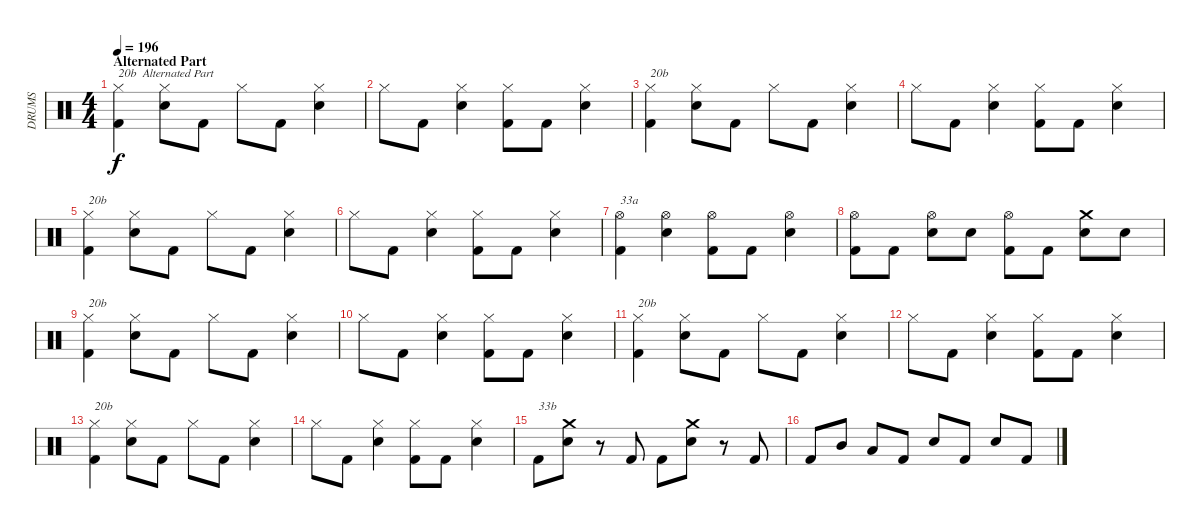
\track ("DRUMS" "DRUMS") {instrument percussion}
\staff {score}
\articulation defaults
\ts (4 4)
\section ("" "Alternated Part")
\tempo 196
\clef neutral
\ks c
("Hi-Hat (closed)" "Kick (hit) 2").4{txt "20b  Alternated Part" dy f} ("Hi-Hat (closed)" "Snare (hit) 2").8 "Kick (hit) 2".8 "Hi-Hat (closed)".8 "Kick (hit) 2".8 ("Hi-Hat (closed)" "Snare (hit) 2").4 |
"Hi-Hat (closed)".8 "Kick (hit) 2".8 ("Hi-Hat (closed)" "Snare (hit) 2").4 ("Hi-Hat (closed)" "Kick (hit) 2").8 "Kick (hit) 2".8 ("Hi-Hat (closed)" "Snare (hit) 2").4 |
("Hi-Hat (closed)" "Kick (hit) 2").4{txt "20b"} ("Hi-Hat (closed)" "Snare (hit) 2").8 "Kick (hit) 2".8 "Hi-Hat (closed)".8 "Kick (hit) 2".8 ("Hi-Hat (closed)" "Snare (hit) 2").4 |
"Hi-Hat (closed)".8 "Kick (hit) 2".8 ("Hi-Hat (closed)" "Snare (hit) 2").4 ("Hi-Hat (closed)" "Kick (hit) 2").8 "Kick (hit) 2".8 ("Hi-Hat (closed)" "Snare (hit) 2").4 |
("Hi-Hat (closed)" "Kick (hit) 2").4{txt "20b"} ("Hi-Hat (closed)" "Snare (hit) 2").8 "Kick (hit) 2".8 "Hi-Hat (closed)".8 "Kick (hit) 2".8 ("Hi-Hat (closed)" "Snare (hit) 2").4 |
"Hi-Hat (closed)".8 "Kick (hit) 2".8 ("Hi-Hat (closed)" "Snare (hit) 2").4 ("Hi-Hat (closed)" "Kick (hit) 2").8 "Kick (hit) 2".8 ("Hi-Hat (closed)" "Snare (hit) 2").4 |
("Hi-Hat (open)" "Kick (hit) 2").4{txt "33a"} ("Hi-Hat (open)" "Snare (hit) 2").4 ("Hi-Hat (open)" "Kick (hit) 2").8 "Kick (hit) 2".8 ("Hi-Hat (open)" "Snare (hit) 2").4 |
("Hi-Hat (open)" "Kick (hit) 2").8 "Kick (hit) 2".8 ("Hi-Hat (open)" "Snare (hit) 2").8 "Snare (hit) 2".8 ("Hi-Hat (open)" "Kick (hit) 2").8 "Kick (hit) 2".8 ("Crash medium (hit)" "Snare (hit) 2").8 "Snare (hit) 2".8 |
("Hi-Hat (closed)" "Kick (hit) 2").4{txt "20b"} ("Hi-Hat (closed)" "Snare (hit) 2").8 "Kick (hit) 2".8 "Hi-Hat (closed)".8 "Kick (hit) 2".8 ("Hi-Hat (closed)" "Snare (hit) 2").4 |
"Hi-Hat (closed)".8 "Kick (hit) 2".8 ("Hi-Hat (closed)" "Snare (hit) 2").4 ("Hi-Hat (closed)" "Kick (hit) 2").8 "Kick (hit) 2".8 ("Hi-Hat (closed)" "Snare (hit) 2").4 |
("Hi-Hat (closed)" "Kick (hit) 2").4{txt "20b"} ("Hi-Hat (closed)" "Snare (hit) 2").8 "Kick (hit) 2".8 "Hi-Hat (closed)".8 "Kick (hit) 2".8 ("Hi-Hat (closed)" "Snare (hit) 2").4 |
"Hi-Hat (closed)".8 "Kick (hit) 2".8 ("Hi-Hat (closed)" "Snare (hit) 2").4 ("Hi-Hat (closed)" "Kick (hit) 2").8 "Kick (hit) 2".8 ("Hi-Hat (closed)" "Snare (hit) 2").4 |
("Hi-Hat (closed)" "Kick (hit) 2").4{txt "20b"} ("Hi-Hat (closed)" "Snare (hit) 2").8 "Kick (hit) 2".8 "Hi-Hat (closed)".8 "Kick (hit) 2".8 ("Hi-Hat (closed)" "Snare (hit) 2").4 |
"Hi-Hat (closed)".8 "Kick (hit) 2".8 ("Hi-Hat (closed)" "Snare (hit) 2").4 ("Hi-Hat (closed)" "Kick (hit) 2").8 "Kick (hit) 2".8 ("Hi-Hat (closed)" "Snare (hit) 2").4 |
"Kick (hit) 2".8{txt "33b"} ("Crash medium (hit)" "Snare (hit) 2").8 r.8 "Kick (hit) 2".8 "Kick (hit) 2".8 ("Crash medium (hit)" "Snare (hit) 2").8 r.8 "Kick (hit) 2".8 |
"Kick (hit) 2".8 "Mid Tom (hit)".8 "Low Tom (hit)".8 "Kick (hit) 2".8 "Snare (hit) 2".8 "Kick (hit) 2".8 "Snare (hit) 2".8 "Kick (hit) 2".8
